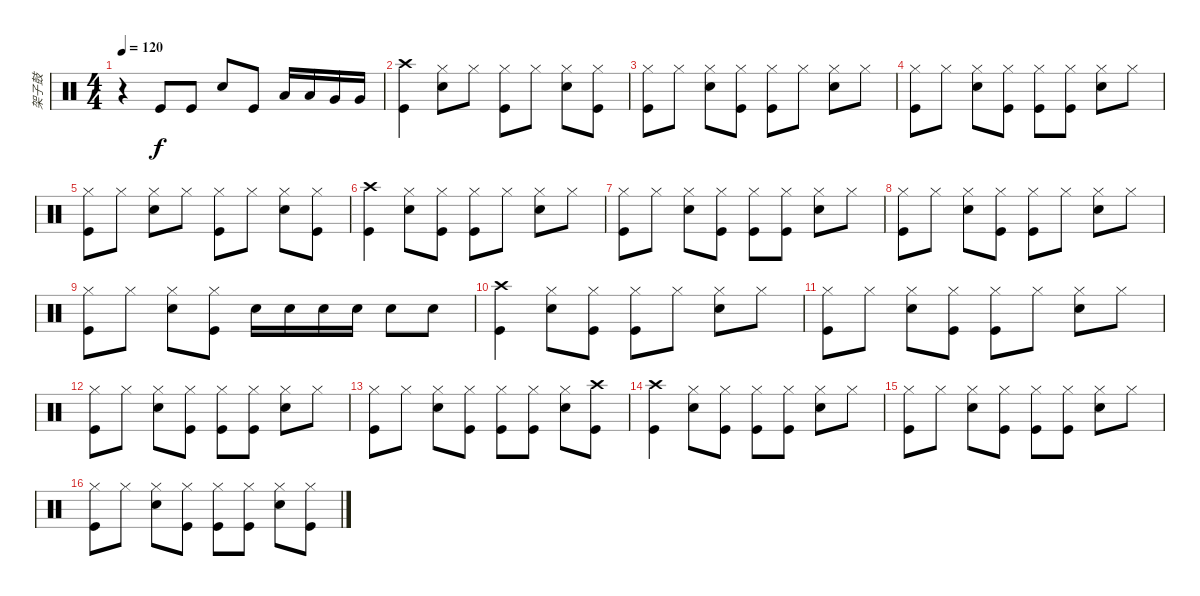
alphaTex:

\track ("架子鼓" "架子鼓") {instrument percussion}
\staff {score}
\articulation defaults
\ts (4 4)
\tempo 120
\clef neutral
\ks c
r.4{dy f} "Kick (hit)".8 "Kick (hit)".8 "Snare (hit) 2".8 "Kick (hit)".8 "Low Tom (hit)".16 "Low Tom (hit)".16 "Very Low Tom (hit)".16 "Very Low Tom (hit)".16 |
("Crash high (hit)" "Kick (hit)").4 ("Hi-Hat (closed)" "Snare (hit) 2").8 "Hi-Hat (closed)".8 ("Hi-Hat (closed)" "Kick (hit)").8 "Hi-Hat (closed)".8 ("Hi-Hat (closed)" "Snare (hit) 2").8 ("Hi-Hat (closed)" "Kick (hit)").8 |
("Hi-Hat (closed)" "Kick (hit)").8 "Hi-Hat (closed)".8 ("Hi-Hat (closed)" "Snare (hit) 2").8 ("Hi-Hat (closed)" "Kick (hit)").8 ("Hi-Hat (closed)" "Kick (hit)").8 "Hi-Hat (closed)".8 ("Hi-Hat (closed)" "Snare (hit) 2").8 "Hi-Hat (closed)".8 |
("Hi-Hat (closed)" "Kick (hit)").8 "Hi-Hat (closed)".8 ("Hi-Hat (closed)" "Snare (hit) 2").8 ("Hi-Hat (closed)" "Kick (hit)").8 ("Hi-Hat (closed)" "Kick (hit)").8 ("Hi-Hat (closed)" "Kick (hit)").8 ("Hi-Hat (closed)" "Snare (hit) 2").8 "Hi-Hat (closed)".8 |
("Hi-Hat (closed)" "Kick (hit)").8 "Hi-Hat (closed)".8 ("Hi-Hat (closed)" "Snare (hit) 2").8 "Hi-Hat (closed)".8 ("Hi-Hat (closed)" "Kick (hit)").8 "Hi-Hat (closed)".8 ("Hi-Hat (closed)" "Snare (hit) 2").8 ("Hi-Hat (closed)" "Kick (hit)").8 |
("Crash high (hit)" "Kick (hit)").4 ("Hi-Hat (closed)" "Snare (hit) 2").8 ("Hi-Hat (closed)" "Kick (hit)").8 ("Hi-Hat (closed)" "Kick (hit)").8 "Hi-Hat (closed)".8 ("Hi-Hat (closed)" "Snare (hit) 2").8 "Hi-Hat (closed)".8 |
("Hi-Hat (closed)" "Kick (hit)").8 "Hi-Hat (closed)".8 ("Hi-Hat (closed)" "Snare (hit) 2").8 ("Hi-Hat (closed)" "Kick (hit)").8 ("Hi-Hat (closed)" "Kick (hit)").8 ("Hi-Hat (closed)" "Kick (hit)").8 ("Hi-Hat (closed)" "Snare (hit) 2").8 "Hi-Hat (closed)".8 |
("Hi-Hat (closed)" "Kick (hit)").8 "Hi-Hat (closed)".8 ("Hi-Hat (closed)" "Snare (hit) 2").8 ("Hi-Hat (closed)" "Kick (hit)").8 ("Hi-Hat (closed)" "Kick (hit)").8 "Hi-Hat (closed)".8 ("Hi-Hat (closed)" "Snare (hit) 2").8 "Hi-Hat (closed)".8 |
("Hi-Hat (closed)" "Kick (hit)").8 "Hi-Hat (closed)".8 ("Hi-Hat (closed)" "Snare (hit) 2").8 ("Hi-Hat (closed)" "Kick (hit)").8 "Snare (hit) 2".16 "Snare (hit) 2".16 "Snare (hit) 2".16 "Snare (hit) 2".16 "Snare (hit) 2".8 "Snare (hit) 2".8 |
("Crash high (hit)" "Kick (hit)").4 ("Hi-Hat (closed)" "Snare (hit) 2").8 ("Hi-Hat (closed)" "Kick (hit)").8 ("Hi-Hat (closed)" "Kick (hit)").8 "Hi-Hat (closed)".8 ("Hi-Hat (closed)" "Snare (hit) 2").8 "Hi-Hat (closed)".8 |
("Hi-Hat (closed)" "Kick (hit)").8 "Hi-Hat (closed)".8 ("Hi-Hat (closed)" "Snare (hit) 2").8 ("Hi-Hat (closed)" "Kick (hit)").8 ("Hi-Hat (closed)" "Kick (hit)").8 "Hi-Hat (closed)".8 ("Hi-Hat (closed)" "Snare (hit) 2").8 "Hi-Hat (closed)".8 |
("Hi-Hat (closed)" "Kick (hit)").8 "Hi-Hat (closed)".8 ("Hi-Hat (closed)" "Snare (hit) 2").8 ("Hi-Hat (closed)" "Kick (hit)").8 ("Hi-Hat (closed)" "Kick (hit)").8 ("Hi-Hat (closed)" "Kick (hit)").8 ("Hi-Hat (closed)" "Snare (hit) 2").8 "Hi-Hat (closed)".8 |
("Hi-Hat (closed)" "Kick (hit)").8 "Hi-Hat (closed)".8 ("Hi-Hat (closed)" "Snare (hit) 2").8 ("Hi-Hat (closed)" "Kick (hit)").8 ("Hi-Hat (closed)" "Kick (hit)").8 ("Hi-Hat (closed)" "Kick (hit)").8 ("Hi-Hat (closed)" "Snare (hit) 2").8 ("Crash high (hit)" "Kick (hit)").8 |
("Crash high (hit)" "Kick (hit)").4 ("Hi-Hat (closed)" "Snare (hit) 2").8 ("Hi-Hat (closed)" "Kick (hit)").8 ("Hi-Hat (closed)" "Kick (hit)").8 ("Hi-Hat (closed)" "Kick (hit)").8 ("Hi-Hat (closed)" "Snare (hit) 2").8 "Hi-Hat (closed)".8 |
("Hi-Hat (closed)" "Kick (hit)").8 "Hi-Hat (closed)".8 ("Hi-Hat (closed)" "Snare (hit) 2").8 ("Hi-Hat (closed)" "Kick (hit)").8 ("Hi-Hat (closed)" "Kick (hit)").8 ("Hi-Hat (closed)" "Kick (hit)").8 ("Hi-Hat (closed)" "Snare (hit) 2").8 "Hi-Hat (closed)".8 |
("Hi-Hat (closed)" "Kick (hit)").8 "Hi-Hat (closed)".8 ("Hi-Hat (closed)" "Snare (hit) 2").8 ("Hi-Hat (closed)" "Kick (hit)").8 ("Hi-Hat (closed)" "Kick (hit)").8 ("Hi-Hat (closed)" "Kick (hit)").8 ("Hi-Hat (closed)" "Snare (hit) 2").8 ("Hi-Hat (closed)" "Kick (hit)").8
